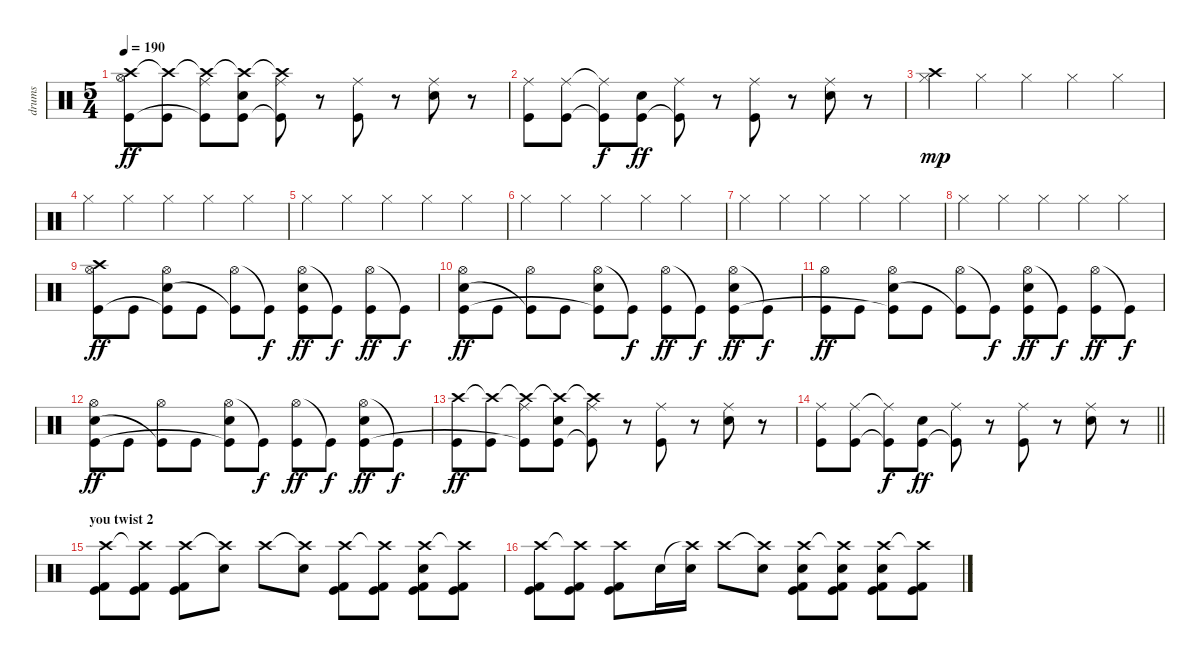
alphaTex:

\track ("drums" "drums") {instrument percussion}
\staff {score}
\articulation defaults
\ts (5 4)
\tempo 190
\clef neutral
\ks c
("Crash high (hit)" "Hi-Hat (open)"{t} "Kick (hit)").8{dy ff} ("Crash high (hit)"{t} "Kick (hit)").8 ("Crash high (hit)"{t} "Ride (middle)" "Kick (hit)"{t}).8 ("Crash high (hit)"{t} "Electric Snare (hit)" "Kick (hit)").8 ("Crash high (hit)"{t} "Ride (middle)" "Kick (hit)"{t}).8 r.8 ("Ride (middle)" "Kick (hit)").8 r.8 ("Ride (middle)" "Electric Snare (hit)").8 r.8 |
("Ride (middle)" "Kick (hit)").8 ("Ride (middle)" "Kick (hit)").8 ("Ride (middle)"{t} "Kick (hit)"{t}).8{dy f} ("Electric Snare (hit)" "Kick (hit)").8{dy ff} ("Ride (middle)" "Kick (hit)"{t}).8 r.8 ("Ride (middle)" "Kick (hit)").8 r.8 ("Ride (middle)" "Electric Snare (hit)").8 r.8 |
("Crash high (hit)" "Hi-Hat (closed)").4{dy mp} "Hi-Hat (closed)".4 "Hi-Hat (closed)".4 "Hi-Hat (closed)".4 "Hi-Hat (closed)".4 |
"Hi-Hat (closed)".4 "Hi-Hat (closed)".4 "Hi-Hat (closed)".4 "Hi-Hat (closed)".4 "Hi-Hat (closed)".4 |
"Hi-Hat (closed)".4 "Hi-Hat (closed)".4 "Hi-Hat (closed)".4 "Hi-Hat (closed)".4 "Hi-Hat (closed)".4 |
"Hi-Hat (closed)".4 "Hi-Hat (closed)".4 "Hi-Hat (closed)".4 "Hi-Hat (closed)".4 "Hi-Hat (closed)".4 |
"Hi-Hat (closed)".4 "Hi-Hat (closed)".4 "Hi-Hat (closed)".4 "Hi-Hat (closed)".4 "Hi-Hat (closed)".4 |
"Hi-Hat (closed)".4 "Hi-Hat (closed)".4 "Hi-Hat (closed)".4 "Hi-Hat (closed)".4 "Hi-Hat (closed)".4 |
("Crash high (hit)" "Hi-Hat (open)" "Kick (hit)").8{dy ff} "Kick (hit)".8 ("Hi-Hat (open)" "Electric Snare (hit)" "Kick (hit)"{t}).8 "Kick (hit)".8 ("Hi-Hat (open)" "Kick (hit)"{t}).8 "Kick (hit)"{t}.8{dy f} ("Hi-Hat (open)" "Electric Snare (hit)" "Kick (hit)").8{dy ff} "Kick (hit)"{t}.8{dy f} ("Hi-Hat (open)" "Kick (hit)").8{dy ff} "Kick (hit)"{t}.8{dy f} |
("Hi-Hat (open)" "Electric Snare (hit)" "Kick (hit)").8{dy ff} "Kick (hit)".8 ("Hi-Hat (open)" "Kick (hit)"{t}).8 "Kick (hit)".8 ("Hi-Hat (open)" "Electric Snare (hit)" "Kick (hit)"{t}).8 "Kick (hit)"{t}.8{dy f} ("Hi-Hat (open)" "Kick (hit)").8{dy ff} "Kick (hit)"{t}.8{dy f} ("Hi-Hat (open)" "Electric Snare (hit)" "Kick (hit)").8{dy ff} "Kick (hit)"{t}.8{dy f} |
("Hi-Hat (open)" "Kick (hit)").8{dy ff} "Kick (hit)".8 ("Hi-Hat (open)" "Electric Snare (hit)" "Kick (hit)"{t}).8 "Kick (hit)".8 ("Hi-Hat (open)" "Kick (hit)"{t}).8 "Kick (hit)"{t}.8{dy f} ("Hi-Hat (open)" "Electric Snare (hit)" "Kick (hit)").8{dy ff} "Kick (hit)"{t}.8{dy f} ("Hi-Hat (open)" "Kick (hit)").8{dy ff} "Kick (hit)"{t}.8{dy f} |
("Hi-Hat (open)" "Electric Snare (hit)" "Kick (hit)").8{dy ff} "Kick (hit)".8 ("Hi-Hat (open)" "Kick (hit)"{t}).8 "Kick (hit)".8 ("Hi-Hat (open)" "Electric Snare (hit)" "Kick (hit)"{t}).8 "Kick (hit)"{t}.8{dy f} ("Hi-Hat (open)" "Kick (hit)").8{dy ff} "Kick (hit)"{t}.8{dy f} ("Hi-Hat (open)" "Electric Snare (hit)" "Kick (hit)").8{dy ff} "Kick (hit)"{t}.8{dy f} |
("Crash high (hit)" "Kick (hit)").8{dy ff} ("Crash high (hit)"{t} "Kick (hit)").8 ("Crash high (hit)"{t} "Ride (middle)" "Kick (hit)"{t}).8 ("Crash high (hit)"{t} "Electric Snare (hit)" "Kick (hit)").8 ("Crash high (hit)"{t} "Ride (middle)" "Kick (hit)"{t}).8 r.8 ("Ride (middle)" "Kick (hit)").8 r.8 ("Ride (middle)" "Electric Snare (hit)").8 r.8 |
\barLineRight lightlight
("Ride (middle)" "Kick (hit)").8 ("Ride (middle)" "Kick (hit)").8 ("Ride (middle)"{t} "Kick (hit)"{t}).8{dy f} ("Electric Snare (hit)" "Kick (hit)").8{dy ff} ("Ride (middle)" "Kick (hit)"{t}).8 r.8 ("Ride (middle)" "Kick (hit)").8 r.8 ("Ride (middle)" "Electric Snare (hit)").8 r.8 |
\section ("" "you twist 2")
("Crash high (hit)" "Kick (hit) 2" "Kick (hit)").8 ("Crash high (hit)"{t} "Kick (hit) 2" "Kick (hit)").8 ("Crash high (hit)" "Kick (hit) 2" "Kick (hit)").8 ("Crash high (hit)"{t} "Electric Snare (hit)").8 "Crash high (hit)".8 ("Crash high (hit)"{t} "Electric Snare (hit)").8 ("Crash high (hit)" "Kick (hit) 2" "Kick (hit)").8 ("Crash high (hit)"{t} "Kick (hit) 2" "Kick (hit)").8 ("Crash high (hit)" "Electric Snare (hit)" "Kick (hit) 2" "Kick (hit)").8 ("Crash high (hit)"{t} "Kick (hit) 2" "Kick (hit)").8 |
("Crash high (hit)" "Kick (hit) 2" "Kick (hit)").8 ("Crash high (hit)"{t} "Kick (hit) 2" "Kick (hit)").8 ("Crash high (hit)" "Kick (hit) 2" "Kick (hit)").8 "Electric Snare (hit)".16 ("Crash high (hit)"{t} "Electric Snare (hit)").16 "Crash high (hit)".8 ("Crash high (hit)"{t} "Electric Snare (hit)").8 ("Crash high (hit)" "Electric Snare (hit)" "Kick (hit) 2" "Kick (hit)").8 ("Crash high (hit)"{t} "Electric Snare (hit)" "Kick (hit) 2" "Kick (hit)").8 ("Crash high (hit)" "Electric Snare (hit)" "Kick (hit) 2" "Kick (hit)").8 ("Crash high (hit)"{t} "Kick (hit) 2" "Kick (hit)").8
